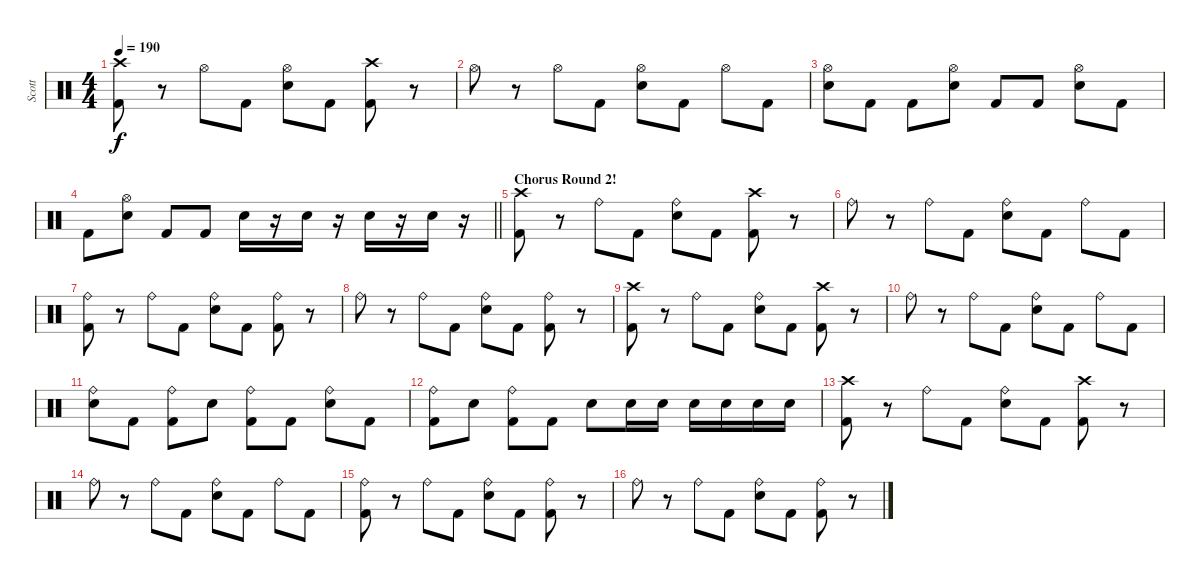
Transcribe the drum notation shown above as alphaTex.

\track ("Scott" "Scott") {instrument percussion}
\staff {score}
\articulation defaults
\ts (4 4)
\tempo 190
\clef neutral
\ks c
("Crash high (hit)" "Kick (hit) 2").8{dy f} r.8 "Hi-Hat (open)".8 "Kick (hit) 2".8 ("Hi-Hat (open)" "Electric Snare (hit)").8 "Kick (hit) 2".8 ("Crash high (hit)" "Kick (hit) 2").8 r.8 |
"Hi-Hat (open)".8 r.8 "Hi-Hat (open)".8 "Kick (hit) 2".8 ("Hi-Hat (open)" "Electric Snare (hit)").8 "Kick (hit) 2".8 "Hi-Hat (open)".8 "Kick (hit) 2".8 |
("Hi-Hat (open)" "Electric Snare (hit)").8 "Kick (hit) 2".8 "Kick (hit) 2".8 ("Hi-Hat (open)" "Electric Snare (hit)").8 "Kick (hit) 2".8 "Kick (hit) 2".8 ("Hi-Hat (open)" "Electric Snare (hit)").8 "Kick (hit) 2".8 |
\barLineRight lightlight "Kick (hit) 2".8
("Hi-Hat (open)" "Electric Snare (hit)").8 "Kick (hit) 2".8 "Kick (hit) 2".8 "Electric Snare (hit)".16 r.16 "Electric Snare (hit)".16 r.16 "Electric Snare (hit)".16 r.16 "Electric Snare (hit)".16 r.16 |
\section ("" "Chorus Round 2!")
("Crash high (hit)" "Kick (hit) 2").8 r.8 "Ride (bell)".8 "Kick (hit) 2".8 ("Ride (bell)" "Electric Snare (hit)").8 "Kick (hit) 2".8 ("Crash high (hit)" "Kick (hit) 2").8 r.8 |
"Ride (bell)".8 r.8 "Ride (bell)".8 "Kick (hit) 2".8 ("Ride (bell)" "Electric Snare (hit)").8 "Kick (hit) 2".8 "Ride (bell)".8 "Kick (hit) 2".8 |
("Ride (bell)" "Kick (hit) 2").8 r.8 "Ride (bell)".8 "Kick (hit) 2".8 ("Ride (bell)" "Electric Snare (hit)").8 "Kick (hit) 2".8 ("Ride (bell)" "Kick (hit) 2").8 r.8 |
"Ride (bell)".8 r.8 "Ride (bell)".8 "Kick (hit) 2".8 ("Ride (bell)" "Electric Snare (hit)").8 "Kick (hit) 2".8 ("Ride (bell)" "Kick (hit) 2").8 r.8 |
("Crash high (hit)" "Kick (hit) 2").8 r.8 "Ride (bell)".8 "Kick (hit) 2".8 ("Ride (bell)" "Electric Snare (hit)").8 "Kick (hit) 2".8 ("Crash high (hit)" "Kick (hit) 2").8 r.8 |
"Ride (bell)".8 r.8 "Ride (bell)".8 "Kick (hit) 2".8 ("Ride (bell)" "Electric Snare (hit)").8 "Kick (hit) 2".8 "Ride (bell)".8 "Kick (hit) 2".8 |
("Ride (bell)" "Electric Snare (hit)").8 "Kick (hit) 2".8 ("Ride (bell)" "Kick (hit) 2").8 "Electric Snare (hit)".8 ("Ride (bell)" "Kick (hit) 2").8 "Kick (hit) 2".8 ("Ride (bell)" "Electric Snare (hit)").8 "Kick (hit) 2".8 |
("Ride (bell)" "Kick (hit) 2").8 "Electric Snare (hit)".8 ("Ride (bell)" "Kick (hit) 2").8 "Kick (hit) 2".8 "Electric Snare (hit)".8 "Electric Snare (hit)".16 "Electric Snare (hit)".16 "Electric Snare (hit)".16 "Electric Snare (hit)".16 "Electric Snare (hit)".16 "Electric Snare (hit)".16 |
("Crash high (hit)" "Kick (hit) 2").8 r.8 "Ride (bell)".8 "Kick (hit) 2".8 ("Ride (bell)" "Electric Snare (hit)").8 "Kick (hit) 2".8 ("Crash high (hit)" "Kick (hit) 2").8 r.8 |
"Ride (bell)".8 r.8 "Ride (bell)".8 "Kick (hit) 2".8 ("Ride (bell)" "Electric Snare (hit)").8 "Kick (hit) 2".8 "Ride (bell)".8 "Kick (hit) 2".8 |
("Ride (bell)" "Kick (hit) 2").8 r.8 "Ride (bell)".8 "Kick (hit) 2".8 ("Ride (bell)" "Electric Snare (hit)").8 "Kick (hit) 2".8 ("Ride (bell)" "Kick (hit) 2").8 r.8 |
"Ride (bell)".8 r.8 "Ride (bell)".8 "Kick (hit) 2".8 ("Ride (bell)" "Electric Snare (hit)").8 "Kick (hit) 2".8 ("Ride (bell)" "Kick (hit) 2").8 r.8
